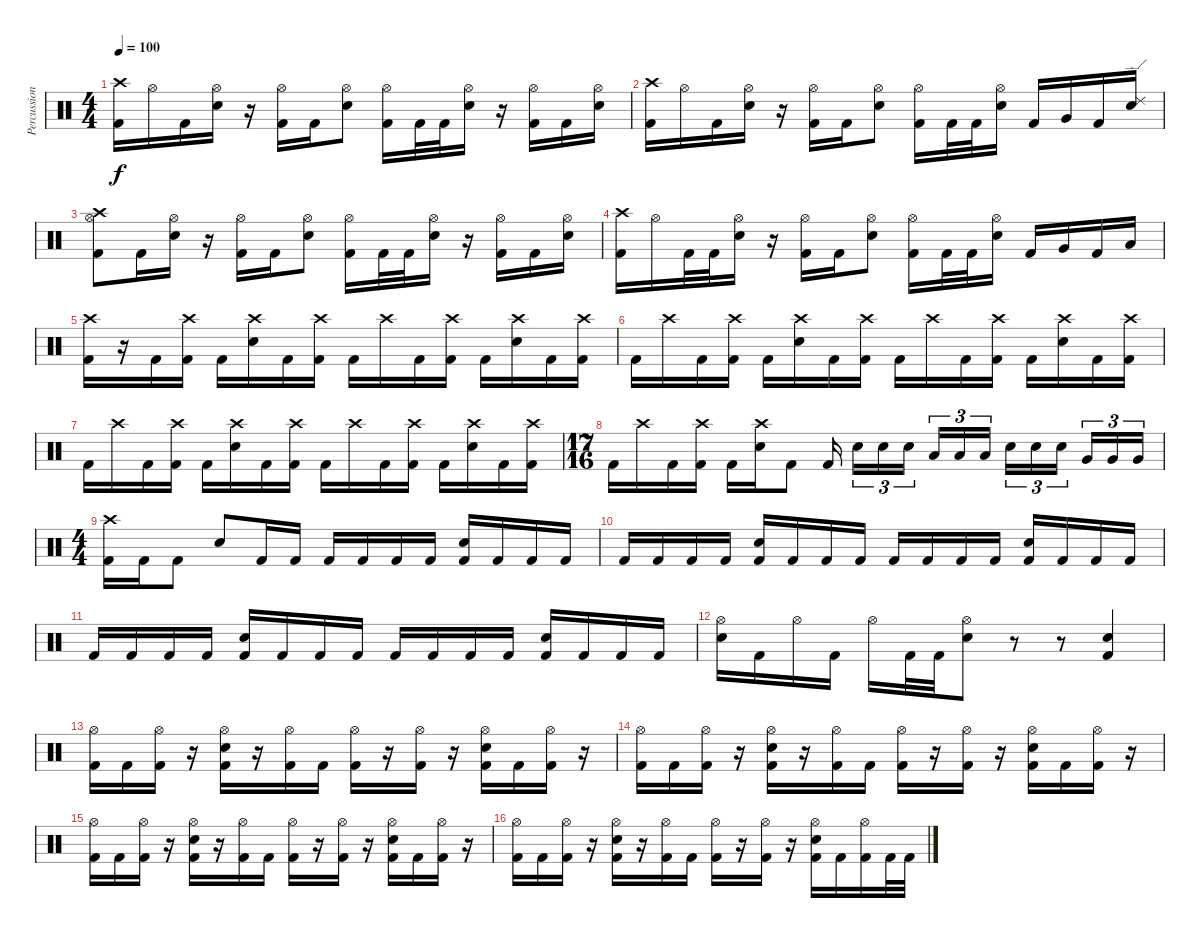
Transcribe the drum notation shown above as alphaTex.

\track ("Percussion" "Percussion") {instrument percussion}
\staff {score}
\articulation defaults
\ts (4 4)
\tempo 100
\clef neutral
\ks c
("Crash high (hit)" "Kick (hit) 2").16{dy f} "Hi-Hat (open)".16 "Kick (hit) 2".16 ("Hi-Hat (open)" "Electric Snare (hit)").16 r.16 ("Hi-Hat (open)" "Kick (hit) 2").16 "Kick (hit) 2".16 ("Hi-Hat (open)" "Electric Snare (hit)").8 ("Hi-Hat (open)" "Kick (hit) 2").16 "Kick (hit) 2".32 "Kick (hit) 2".32 ("Hi-Hat (open)" "Electric Snare (hit)").16 r.16 ("Hi-Hat (open)" "Kick (hit) 2").16 "Kick (hit) 2".16 ("Hi-Hat (open)" "Electric Snare (hit)").16 |
("Crash high (hit)" "Kick (hit) 2").16 "Hi-Hat (open)".16 "Kick (hit) 2".16 ("Hi-Hat (open)" "Electric Snare (hit)").16 r.16 ("Hi-Hat (open)" "Kick (hit) 2").16 "Kick (hit) 2".16 ("Hi-Hat (open)" "Electric Snare (hit)").8 ("Hi-Hat (open)" "Kick (hit) 2").16 "Kick (hit) 2".32 "Kick (hit) 2".32 ("Hi-Hat (open)" "Electric Snare (hit)").16 "Kick (hit) 2".16 "Very Low Tom (hit)".16 "Kick (hit) 2".16 ("Ride (edge) 2" "Electric Snare (hit)").16 |
("Crash high (hit)" "Hi-Hat (open)" "Kick (hit) 2").8 "Kick (hit) 2".16 ("Hi-Hat (open)" "Electric Snare (hit)").16 r.16 ("Hi-Hat (open)" "Kick (hit) 2").16 "Kick (hit) 2".16 ("Hi-Hat (open)" "Electric Snare (hit)").8 ("Hi-Hat (open)" "Kick (hit) 2").16 "Kick (hit) 2".32 "Kick (hit) 2".32 ("Hi-Hat (open)" "Electric Snare (hit)").16 r.16 ("Hi-Hat (open)" "Kick (hit) 2").16 "Kick (hit) 2".16 ("Hi-Hat (open)" "Electric Snare (hit)").16 |
("Crash high (hit)" "Kick (hit) 2").16 "Hi-Hat (open)".16 "Kick (hit) 2".32 "Kick (hit) 2".32 ("Hi-Hat (open)" "Electric Snare (hit)").16 r.16 ("Hi-Hat (open)" "Kick (hit) 2").16 "Kick (hit) 2".16 ("Hi-Hat (open)" "Electric Snare (hit)").8 ("Hi-Hat (open)" "Kick (hit) 2").16 "Kick (hit) 2".32 "Kick (hit) 2".32 ("Hi-Hat (open)" "Electric Snare (hit)").16 "Kick (hit) 2".16 "Very Low Tom (hit)".16 "Kick (hit) 2".16 "Low Floor Tom (hit)".16 |
("Crash high (hit)" "Kick (hit) 2").16 r.16 "Kick (hit) 2".16 ("Crash high (hit)" "Kick (hit) 2").16 "Kick (hit) 2".16 ("Crash high (hit)" "Electric Snare (hit)").16 "Kick (hit) 2".16 ("Crash high (hit)" "Kick (hit) 2").16 "Kick (hit) 2".16 "Crash high (hit)".16 "Kick (hit) 2".16 ("Crash high (hit)" "Kick (hit) 2").16 "Kick (hit) 2".16 ("Crash high (hit)" "Electric Snare (hit)").16 "Kick (hit) 2".16 ("Crash high (hit)" "Kick (hit) 2").16 |
"Kick (hit) 2".16 "Crash high (hit)".16 "Kick (hit) 2".16 ("Crash high (hit)" "Kick (hit) 2").16 "Kick (hit) 2".16 ("Crash high (hit)" "Electric Snare (hit)").16 "Kick (hit) 2".16 ("Crash high (hit)" "Kick (hit) 2").16 "Kick (hit) 2".16 "Crash high (hit)".16 "Kick (hit) 2".16 ("Crash high (hit)" "Kick (hit) 2").16 "Kick (hit) 2".16 ("Crash high (hit)" "Electric Snare (hit)").16 "Kick (hit) 2".16 ("Crash high (hit)" "Kick (hit) 2").16 |
"Kick (hit) 2".16 "Crash high (hit)".16 "Kick (hit) 2".16 ("Crash high (hit)" "Kick (hit) 2").16 "Kick (hit) 2".16 ("Crash high (hit)" "Electric Snare (hit)").16 "Kick (hit) 2".16 ("Crash high (hit)" "Kick (hit) 2").16 "Kick (hit) 2".16 "Crash high (hit)".16 "Kick (hit) 2".16 ("Crash high (hit)" "Kick (hit) 2").16 "Kick (hit) 2".16 ("Crash high (hit)" "Electric Snare (hit)").16 "Kick (hit) 2".16 ("Crash high (hit)" "Kick (hit) 2").16 |
\ts (17 16)
"Kick (hit) 2".16 "Crash high (hit)".16 "Kick (hit) 2".16 ("Crash high (hit)" "Kick (hit) 2").16 "Kick (hit) 2".16 ("Crash high (hit)" "Electric Snare (hit)").16 "Kick (hit) 2".8 "Kick (hit) 2".16 "Electric Snare (hit)".16{tu (3 2)} "Electric Snare (hit)".16{tu (3 2)} "Electric Snare (hit)".16{tu (3 2)} "Low Tom (hit)".16{tu (3 2)} "Low Tom (hit)".16{tu (3 2)} "Low Tom (hit)".16{tu (3 2)} "Electric Snare (hit)".16{tu (3 2)} "Electric Snare (hit)".16{tu (3 2)} "Electric Snare (hit)".16{tu (3 2)} "Very Low Tom (hit)".16{tu (3 2)} "Very Low Tom (hit)".16{tu (3 2)} "Very Low Tom (hit)".16{tu (3 2)} |
\ts (4 4)
("Crash high (hit)" "Kick (hit) 2").16 "Kick (hit) 2".16 "Kick (hit) 2".8 "Electric Snare (hit)".8 "Kick (hit) 2".16 "Kick (hit) 2".16 "Kick (hit) 2".16 "Kick (hit) 2".16 "Kick (hit) 2".16 "Kick (hit) 2".16 ("Electric Snare (hit)" "Kick (hit) 2").16 "Kick (hit) 2".16 "Kick (hit) 2".16 "Kick (hit) 2".16 |
"Kick (hit) 2".16 "Kick (hit) 2".16 "Kick (hit) 2".16 "Kick (hit) 2".16 ("Electric Snare (hit)" "Kick (hit) 2").16 "Kick (hit) 2".16 "Kick (hit) 2".16 "Kick (hit) 2".16 "Kick (hit) 2".16 "Kick (hit) 2".16 "Kick (hit) 2".16 "Kick (hit) 2".16 ("Electric Snare (hit)" "Kick (hit) 2").16 "Kick (hit) 2".16 "Kick (hit) 2".16 "Kick (hit) 2".16 |
"Kick (hit) 2".16 "Kick (hit) 2".16 "Kick (hit) 2".16 "Kick (hit) 2".16 ("Electric Snare (hit)" "Kick (hit) 2").16 "Kick (hit) 2".16 "Kick (hit) 2".16 "Kick (hit) 2".16 "Kick (hit) 2".16 "Kick (hit) 2".16 "Kick (hit) 2".16 "Kick (hit) 2".16 ("Electric Snare (hit)" "Kick (hit) 2").16 "Kick (hit) 2".16 "Kick (hit) 2".16 "Kick (hit) 2".16 |
("Hi-Hat (open)" "Electric Snare (hit)").16 "Kick (hit) 2".16 "Hi-Hat (open)".16 "Kick (hit) 2".16 "Hi-Hat (open)".16 "Kick (hit) 2".32 "Kick (hit) 2".32 ("Hi-Hat (open)" "Electric Snare (hit)").8 r.8 r.8 ("Electric Snare (hit)" "Kick (hit) 2").4 |
("Hi-Hat (open)" "Kick (hit) 2").16 "Kick (hit) 2".16 ("Hi-Hat (open)" "Kick (hit) 2").16 r.16 ("Hi-Hat (open)" "Electric Snare (hit)" "Kick (hit) 2").16 r.16 ("Hi-Hat (open)" "Kick (hit) 2").16 "Kick (hit) 2".16 ("Hi-Hat (open)" "Kick (hit) 2").16 r.16 ("Hi-Hat (open)" "Kick (hit) 2").16 r.16 ("Hi-Hat (open)" "Electric Snare (hit)" "Kick (hit) 2").16 "Kick (hit) 2".16 ("Hi-Hat (open)" "Kick (hit) 2").16 r.16 |
("Hi-Hat (open)" "Kick (hit) 2").16 "Kick (hit) 2".16 ("Hi-Hat (open)" "Kick (hit) 2").16 r.16 ("Hi-Hat (open)" "Electric Snare (hit)" "Kick (hit) 2").16 r.16 ("Hi-Hat (open)" "Kick (hit) 2").16 "Kick (hit) 2".16 ("Hi-Hat (open)" "Kick (hit) 2").16 r.16 ("Hi-Hat (open)" "Kick (hit) 2").16 r.16 ("Hi-Hat (open)" "Electric Snare (hit)" "Kick (hit) 2").16 "Kick (hit) 2".16 ("Hi-Hat (open)" "Kick (hit) 2").16 r.16 |
("Hi-Hat (open)" "Kick (hit) 2").16 "Kick (hit) 2".16 ("Hi-Hat (open)" "Kick (hit) 2").16 r.16 ("Hi-Hat (open)" "Electric Snare (hit)" "Kick (hit) 2").16 r.16 ("Hi-Hat (open)" "Kick (hit) 2").16 "Kick (hit) 2".16 ("Hi-Hat (open)" "Kick (hit) 2").16 r.16 ("Hi-Hat (open)" "Kick (hit) 2").16 r.16 ("Hi-Hat (open)" "Electric Snare (hit)" "Kick (hit) 2").16 "Kick (hit) 2".16 ("Hi-Hat (open)" "Kick (hit) 2").16 r.16 |
("Hi-Hat (open)" "Kick (hit) 2").16 "Kick (hit) 2".16 ("Hi-Hat (open)" "Kick (hit) 2").16 r.16 ("Hi-Hat (open)" "Electric Snare (hit)" "Kick (hit) 2").16 r.16 ("Hi-Hat (open)" "Kick (hit) 2").16 "Kick (hit) 2".16 ("Hi-Hat (open)" "Kick (hit) 2").16 r.16 ("Hi-Hat (open)" "Kick (hit) 2").16 r.16 ("Hi-Hat (open)" "Electric Snare (hit)" "Kick (hit) 2").16 "Kick (hit) 2".16 ("Hi-Hat (open)" "Kick (hit) 2").16 "Kick (hit) 2".32 "Kick (hit) 2".32
